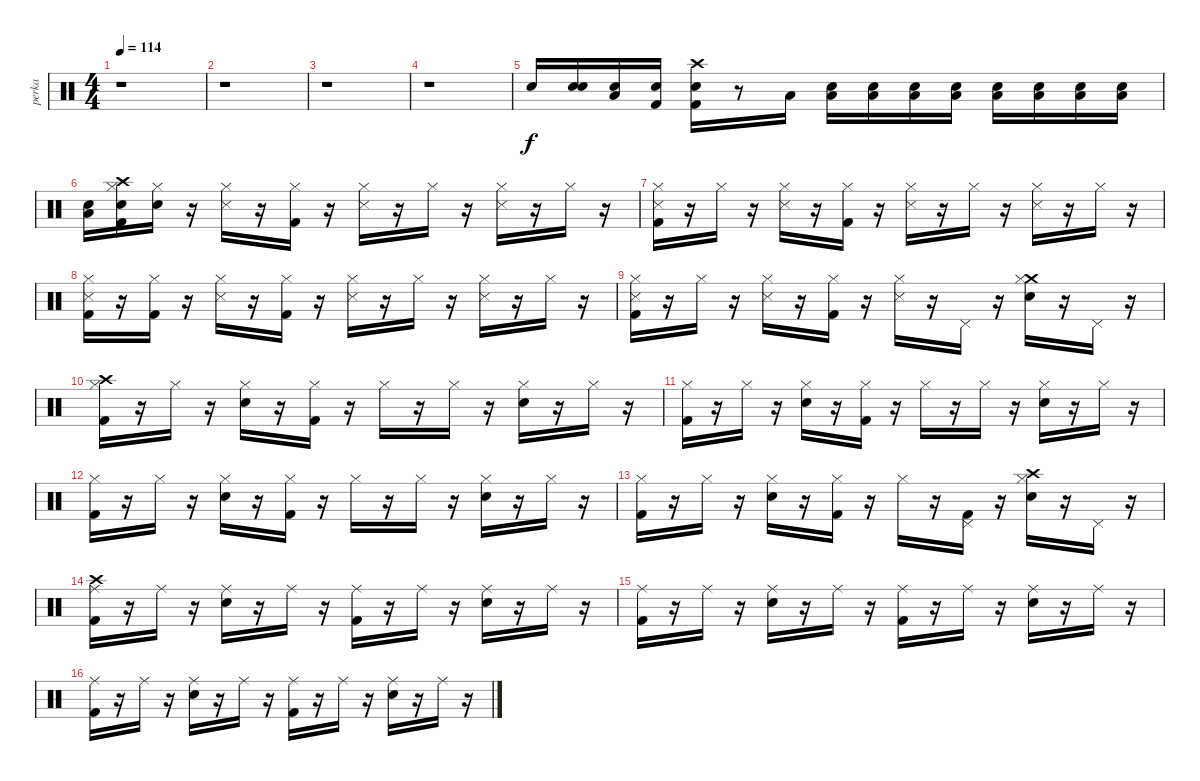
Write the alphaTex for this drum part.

\track ("perka" "perka") {instrument percussion}
\staff {score}
\articulation defaults
\ts (4 4)
\tempo 114
\clef neutral
\ks c
r.1{dy f} |
r.1 |
r.1 |
r.1 |
"Snare (hit) 2".16 ("Snare (hit)" "Snare (hit) 2").16 ("Snare (hit)" "Low Floor Tom (hit)").16 ("Snare (hit)" "Kick (hit) 2").16 ("Snare (hit)" "Kick (hit) 2" "Crash high (hit)").16 r.8 "Low Tom (hit)".16 ("Snare (hit)" "Low Tom (hit)").16 ("Snare (hit)" "Low Tom (hit)").16 ("Snare (hit)" "Low Tom (hit)").16 ("Snare (hit)" "Low Tom (hit)").16 ("Snare (hit)" "Low Tom (hit)").16 ("Snare (hit)" "Low Floor Tom (hit)").16 ("Snare (hit)" "Low Floor Tom (hit)").16 ("Snare (hit)" "Low Floor Tom (hit)").16 |
("Snare (hit)" "Low Floor Tom (hit)").16 ("Snare (hit)" "Kick (hit) 2" "Hi-Hat (closed)" "Crash high (hit)").16 ("Snare (hit)" "Hi-Hat (closed)").16 r.16 ("Snare (side stick) 3" "Hi-Hat (closed)").16 r.16 ("Kick (hit) 2" "Hi-Hat (closed)").16 r.16 ("Snare (side stick) 3" "Hi-Hat (closed)").16 r.16 "Hi-Hat (closed)".16 r.16 ("Snare (side stick) 3" "Hi-Hat (closed)").16 r.16 "Hi-Hat (closed)".16 r.16 |
("Snare (side stick) 3" "Kick (hit) 2" "Hi-Hat (closed)").16 r.16 "Hi-Hat (closed)".16 r.16 ("Snare (side stick) 3" "Hi-Hat (closed)").16 r.16 ("Kick (hit) 2" "Hi-Hat (closed)").16 r.16 ("Snare (side stick) 3" "Hi-Hat (closed)").16 r.16 "Hi-Hat (closed)".16 r.16 ("Snare (side stick) 3" "Hi-Hat (closed)").16 r.16 "Hi-Hat (closed)".16 r.16 |
("Snare (side stick) 3" "Kick (hit) 2" "Hi-Hat (closed)").16 r.16 ("Kick (hit) 2" "Hi-Hat (closed)").16 r.16 ("Snare (side stick) 3" "Hi-Hat (closed)").16 r.16 ("Kick (hit) 2" "Hi-Hat (closed)").16 r.16 ("Snare (side stick) 3" "Hi-Hat (closed)").16 r.16 "Hi-Hat (closed)".16 r.16 ("Snare (side stick) 3" "Hi-Hat (closed)").16 r.16 "Hi-Hat (closed)".16 r.16 |
("Snare (side stick) 3" "Kick (hit) 2" "Hi-Hat (closed)").16 r.16 "Hi-Hat (closed)".16 r.16 ("Snare (side stick) 3" "Hi-Hat (closed)").16 r.16 ("Kick (hit) 2" "Hi-Hat (closed)").16 r.16 ("Snare (side stick) 3" "Hi-Hat (closed)").16 r.16 "Pedal Hi-Hat (hit)".16 r.16 ("Electric Snare (hit)" "Crash medium (hit)" "Hi-Hat (closed)").16 r.16 "Pedal Hi-Hat (hit)".16 r.16 |
("Kick (hit) 2" "Hi-Hat (closed)" "Crash high (hit)").16 r.16 "Hi-Hat (closed)".16 r.16 ("Snare (hit) 2" "Hi-Hat (closed)").16 r.16 ("Kick (hit) 2" "Hi-Hat (closed)").16 r.16 "Hi-Hat (closed)".16 r.16 "Hi-Hat (closed)".16 r.16 ("Snare (hit) 2" "Hi-Hat (closed)").16 r.16 "Hi-Hat (closed)".16 r.16 |
("Kick (hit) 2" "Hi-Hat (closed)").16 r.16 "Hi-Hat (closed)".16 r.16 ("Snare (hit) 2" "Hi-Hat (closed)").16 r.16 ("Kick (hit) 2" "Hi-Hat (closed)").16 r.16 "Hi-Hat (closed)".16 r.16 "Hi-Hat (closed)".16 r.16 ("Snare (hit) 2" "Hi-Hat (closed)").16 r.16 "Hi-Hat (closed)".16 r.16 |
("Kick (hit) 2" "Hi-Hat (closed)").16 r.16 "Hi-Hat (closed)".16 r.16 ("Snare (hit) 2" "Hi-Hat (closed)").16 r.16 ("Kick (hit) 2" "Hi-Hat (closed)").16 r.16 "Hi-Hat (closed)".16 r.16 "Hi-Hat (closed)".16 r.16 ("Snare (hit) 2" "Hi-Hat (closed)").16 r.16 "Hi-Hat (closed)".16 r.16 |
("Kick (hit) 2" "Hi-Hat (closed)").16 r.16 "Hi-Hat (closed)".16 r.16 ("Snare (hit) 2" "Hi-Hat (closed)").16 r.16 ("Kick (hit) 2" "Hi-Hat (closed)").16 r.16 "Hi-Hat (closed)".16 r.16 ("Kick (hit) 2" "Pedal Hi-Hat (hit)").16 r.16 ("Crash high (hit)" "Snare (hit) 2" "Hi-Hat (closed)").16 r.16 "Pedal Hi-Hat (hit)".16 r.16 |
("Kick (hit) 2" "Ride (middle)" "Crash high (hit)").16 r.16 "Ride (middle)".16 r.16 ("Snare (hit) 2" "Ride (middle)").16 r.16 "Ride (middle)".16 r.16 ("Kick (hit) 2" "Ride (middle)").16 r.16 "Ride (middle)".16 r.16 ("Snare (hit) 2" "Ride (middle)").16 r.16 "Ride (middle)".16 r.16 |
("Kick (hit) 2" "Ride (middle)").16 r.16 "Ride (middle)".16 r.16 ("Snare (hit) 2" "Ride (middle)").16 r.16 "Ride (middle)".16 r.16 ("Kick (hit) 2" "Ride (middle)").16 r.16 "Ride (middle)".16 r.16 ("Snare (hit) 2" "Ride (middle)").16 r.16 "Ride (middle)".16 r.16 |
("Kick (hit) 2" "Ride (middle)").16 r.16 "Ride (middle)".16 r.16 ("Snare (hit) 2" "Ride (middle)").16 r.16 "Ride (middle)".16 r.16 ("Kick (hit) 2" "Ride (middle)").16 r.16 "Ride (middle)".16 r.16 ("Snare (hit) 2" "Ride (middle)").16 r.16 "Ride (middle)".16 r.16
